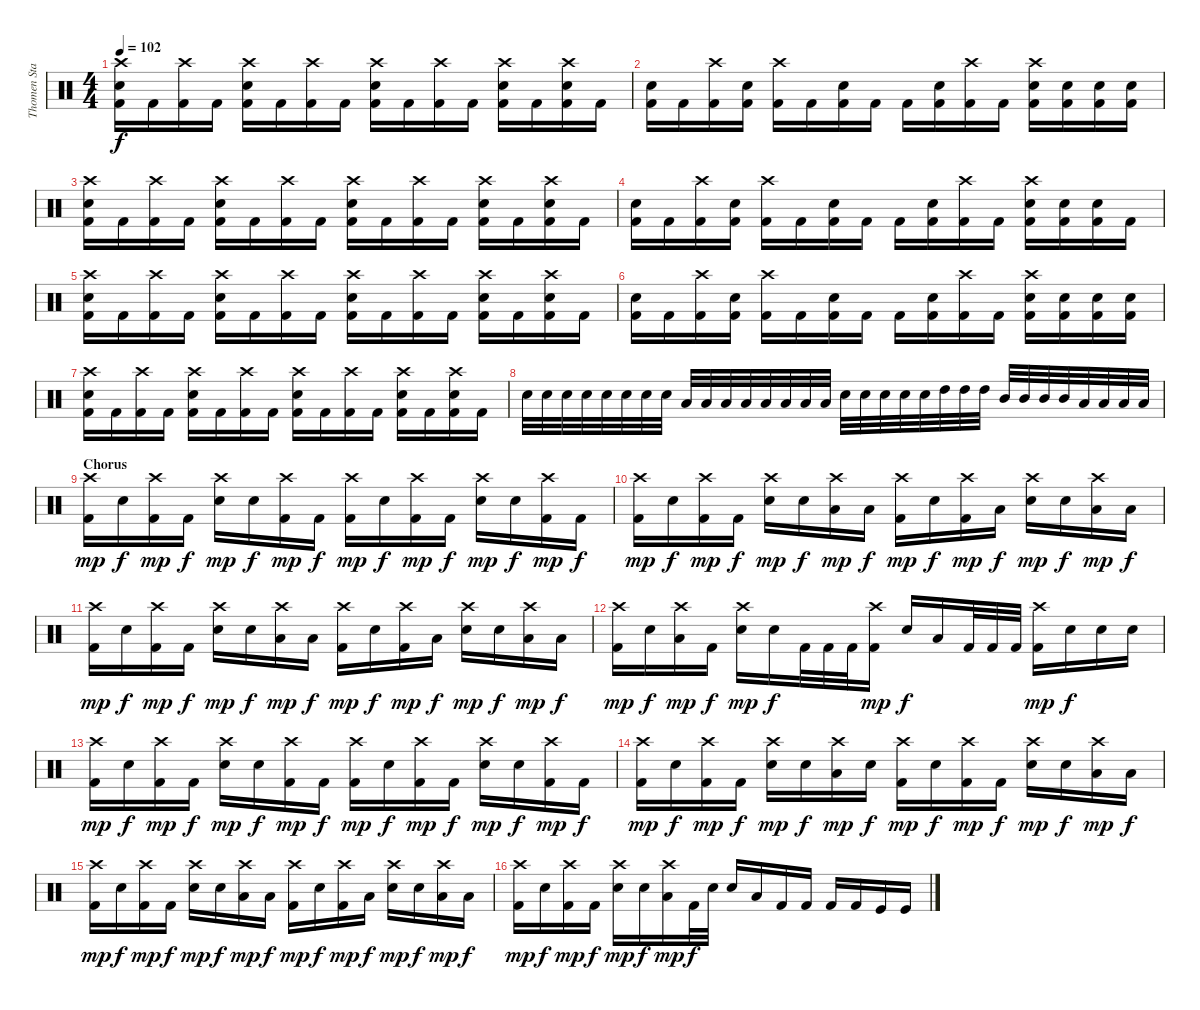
\track ("Thomen Stauch" "Thomen Sta") {instrument percussion}
\staff {score}
\articulation defaults
\ts (4 4)
\tempo 102
\clef neutral
\ks c
("Crash high (hit)" "Snare (hit) 2" "Kick (hit) 2").16{dy f} "Kick (hit) 2".16 ("Crash high (hit)" "Kick (hit) 2").16 "Kick (hit) 2".16 ("Crash high (hit)" "Snare (hit) 2" "Kick (hit) 2").16 "Kick (hit) 2".16 ("Crash high (hit)" "Kick (hit) 2").16 "Kick (hit) 2".16 ("Crash high (hit)" "Snare (hit) 2" "Kick (hit) 2").16 "Kick (hit) 2".16 ("Crash high (hit)" "Kick (hit) 2").16 "Kick (hit) 2".16 ("Crash high (hit)" "Snare (hit) 2" "Kick (hit) 2").16 "Kick (hit) 2".16 ("Crash high (hit)" "Snare (hit) 2" "Kick (hit) 2").16 "Kick (hit) 2".16 |
("Snare (hit) 2" "Kick (hit) 2").16 "Kick (hit) 2".16 ("Crash high (hit)" "Kick (hit) 2").16 ("Snare (hit) 2" "Kick (hit) 2").16 ("Crash high (hit)" "Kick (hit) 2").16 "Kick (hit) 2".16 ("Snare (hit) 2" "Kick (hit) 2").16 "Kick (hit) 2".16 "Kick (hit) 2".16 ("Snare (hit) 2" "Kick (hit) 2").16 ("Crash high (hit)" "Kick (hit) 2").16 "Kick (hit) 2".16 ("Crash high (hit)" "Snare (hit) 2" "Kick (hit) 2").16 ("Snare (hit) 2" "Kick (hit) 2").16 ("Snare (hit) 2" "Kick (hit) 2").16 ("Snare (hit) 2" "Kick (hit) 2").16 |
("Crash high (hit)" "Snare (hit) 2" "Kick (hit) 2").16 "Kick (hit) 2".16 ("Crash high (hit)" "Kick (hit) 2").16 "Kick (hit) 2".16 ("Crash high (hit)" "Snare (hit) 2" "Kick (hit) 2").16 "Kick (hit) 2".16 ("Crash high (hit)" "Kick (hit) 2").16 "Kick (hit) 2".16 ("Crash high (hit)" "Snare (hit) 2" "Kick (hit) 2").16 "Kick (hit) 2".16 ("Crash high (hit)" "Kick (hit) 2").16 "Kick (hit) 2".16 ("Crash high (hit)" "Snare (hit) 2" "Kick (hit) 2").16 "Kick (hit) 2".16 ("Crash high (hit)" "Snare (hit) 2" "Kick (hit) 2").16 "Kick (hit) 2".16 |
("Snare (hit) 2" "Kick (hit) 2").16 "Kick (hit) 2".16 ("Crash high (hit)" "Kick (hit) 2").16 ("Snare (hit) 2" "Kick (hit) 2").16 ("Crash high (hit)" "Kick (hit) 2").16 "Kick (hit) 2".16 ("Snare (hit) 2" "Kick (hit) 2").16 "Kick (hit) 2".16 "Kick (hit) 2".16 ("Snare (hit) 2" "Kick (hit) 2").16 ("Crash high (hit)" "Kick (hit) 2").16 "Kick (hit) 2".16 ("Crash high (hit)" "Snare (hit) 2" "Kick (hit) 2").16 ("Snare (hit) 2" "Kick (hit) 2").16 ("Snare (hit) 2" "Kick (hit) 2").16 "Kick (hit) 2".16 |
("Crash high (hit)" "Snare (hit) 2" "Kick (hit) 2").16 "Kick (hit) 2".16 ("Crash high (hit)" "Kick (hit) 2").16 "Kick (hit) 2".16 ("Crash high (hit)" "Snare (hit) 2" "Kick (hit) 2").16 "Kick (hit) 2".16 ("Crash high (hit)" "Kick (hit) 2").16 "Kick (hit) 2".16 ("Crash high (hit)" "Snare (hit) 2" "Kick (hit) 2").16 "Kick (hit) 2".16 ("Crash high (hit)" "Kick (hit) 2").16 "Kick (hit) 2".16 ("Crash high (hit)" "Snare (hit) 2" "Kick (hit) 2").16 "Kick (hit) 2".16 ("Crash high (hit)" "Snare (hit) 2" "Kick (hit) 2").16 "Kick (hit) 2".16 |
("Snare (hit) 2" "Kick (hit) 2").16 "Kick (hit) 2".16 ("Crash high (hit)" "Kick (hit) 2").16 ("Snare (hit) 2" "Kick (hit) 2").16 ("Crash high (hit)" "Kick (hit) 2").16 "Kick (hit) 2".16 ("Snare (hit) 2" "Kick (hit) 2").16 "Kick (hit) 2".16 "Kick (hit) 2".16 ("Snare (hit) 2" "Kick (hit) 2").16 ("Crash high (hit)" "Kick (hit) 2").16 "Kick (hit) 2".16 ("Crash high (hit)" "Snare (hit) 2" "Kick (hit) 2").16 ("Snare (hit) 2" "Kick (hit) 2").16 ("Snare (hit) 2" "Kick (hit) 2").16 ("Snare (hit) 2" "Kick (hit) 2").16 |
("Crash high (hit)" "Snare (hit) 2" "Kick (hit) 2").16 "Kick (hit) 2".16 ("Crash high (hit)" "Kick (hit) 2").16 "Kick (hit) 2".16 ("Crash high (hit)" "Snare (hit) 2" "Kick (hit) 2").16 "Kick (hit) 2".16 ("Crash high (hit)" "Kick (hit) 2").16 "Kick (hit) 2".16 ("Crash high (hit)" "Snare (hit) 2" "Kick (hit) 2").16 "Kick (hit) 2".16 ("Crash high (hit)" "Kick (hit) 2").16 "Kick (hit) 2".16 ("Crash high (hit)" "Snare (hit) 2" "Kick (hit) 2").16 "Kick (hit) 2".16 ("Crash high (hit)" "Snare (hit) 2" "Kick (hit) 2").16 "Kick (hit) 2".16 |
"Snare (hit) 2".32 "Snare (hit) 2".32 "Snare (hit) 2".32 "Snare (hit) 2".32 "Snare (hit) 2".32 "Snare (hit) 2".32 "Snare (hit) 2".32 "Snare (hit) 2".32 "Low Floor Tom (hit)".32 "Low Floor Tom (hit)".32 "Low Floor Tom (hit)".32 "Low Floor Tom (hit)".32 "Low Floor Tom (hit)".32 "Low Floor Tom (hit)".32 "Low Floor Tom (hit)".32 "Low Floor Tom (hit)".32 "Snare (hit) 2".32 "Snare (hit) 2".32 "Snare (hit) 2".32 "Snare (hit) 2".32 "Snare (hit) 2".32 "High Tom (hit)".32 "High Tom (hit)".32 "High Tom (hit)".32 "Mid Tom (hit)".32 "Mid Tom (hit)".32 "Mid Tom (hit)".32 "Mid Tom (hit)".32 "Low Floor Tom (hit)".32 "Low Floor Tom (hit)".32 "Low Floor Tom (hit)".32 "Low Floor Tom (hit)".32 |
\section ("" "Chorus")
("Crash high (hit)" "Kick (hit) 2").16{dy mp} "Snare (hit)"{x}.16{dy f} ("Crash high (hit)" "Kick (hit) 2").16{dy mp} "Kick (hit) 2".16{dy f} ("Crash high (hit)" "Snare (hit) 2").16{dy mp} "Snare (hit)"{x}.16{dy f} ("Crash high (hit)" "Kick (hit) 2").16{dy mp} "Kick (hit) 2".16{dy f} ("Crash high (hit)" "Kick (hit) 2").16{dy mp} "Snare (hit)"{x}.16{dy f} ("Crash high (hit)" "Kick (hit) 2").16{dy mp} "Kick (hit) 2".16{dy f} ("Crash high (hit)" "Snare (hit) 2").16{dy mp} "Snare (hit)"{x}.16{dy f} ("Crash high (hit)" "Kick (hit) 2").16{dy mp} "Kick (hit) 2".16{dy f} |
("Crash high (hit)" "Kick (hit) 2").16{dy mp} "Snare (hit)"{x}.16{dy f} ("Crash high (hit)" "Kick (hit) 2").16{dy mp} "Kick (hit) 2".16{dy f} ("Crash high (hit)" "Snare (hit) 2").16{dy mp} "Snare (hit)"{x}.16{dy f} ("Crash high (hit)" "Low Floor Tom (hit)"{x}).16{dy mp} "Low Floor Tom (hit)"{x}.16{dy f} ("Crash high (hit)" "Kick (hit) 2").16{dy mp} "Snare (hit)"{x}.16{dy f} ("Crash high (hit)" "Kick (hit) 2").16{dy mp} "Low Floor Tom (hit)"{x}.16{dy f} ("Crash high (hit)" "Snare (hit) 2").16{dy mp} "Snare (hit)"{x}.16{dy f} ("Crash high (hit)" "Low Floor Tom (hit)"{x}).16{dy mp} "Low Floor Tom (hit)"{x}.16{dy f} |
("Crash high (hit)" "Kick (hit) 2").16{dy mp} "Snare (hit)"{x}.16{dy f} ("Crash high (hit)" "Kick (hit) 2").16{dy mp} "Kick (hit) 2".16{dy f} ("Crash high (hit)" "Snare (hit) 2").16{dy mp} "Snare (hit)"{x}.16{dy f} ("Crash high (hit)" "Low Floor Tom (hit)"{x}).16{dy mp} "Low Floor Tom (hit)"{x}.16{dy f} ("Crash high (hit)" "Kick (hit) 2").16{dy mp} "Snare (hit)"{x}.16{dy f} ("Crash high (hit)" "Kick (hit) 2").16{dy mp} "Low Floor Tom (hit)"{x}.16{dy f} ("Crash high (hit)" "Snare (hit) 2").16{dy mp} "Snare (hit)"{x}.16{dy f} ("Crash high (hit)" "Low Floor Tom (hit)"{x}).16{dy mp} "Low Floor Tom (hit)"{x}.16{dy f} |
("Crash high (hit)" "Kick (hit) 2").16{dy mp} "Snare (hit)"{x}.16{dy f} ("Crash high (hit)" "Low Floor Tom (hit)"{x}).16{dy mp} "Kick (hit) 2".16{dy f} ("Crash high (hit)" "Snare (hit) 2").16{dy mp} "Snare (hit)"{x}.16{dy f} "Kick (hit) 2".32 "Kick (hit) 2".32 "Kick (hit) 2".32 ("Crash high (hit)" "Kick (hit) 2").16{dy mp} "Snare (hit)"{x}.16{dy f} "Low Floor Tom (hit)"{x}.16 "Kick (hit) 2".32 "Kick (hit) 2".32 "Kick (hit) 2".32 ("Crash high (hit)" "Kick (hit) 2").16{dy mp} "Snare (hit)"{x}.16{dy f} "Snare (hit)"{x}.16 "Snare (hit)"{x}.16 |
("Crash high (hit)" "Kick (hit) 2").16{dy mp} "Snare (hit)"{x}.16{dy f} ("Crash high (hit)" "Kick (hit) 2").16{dy mp} "Kick (hit) 2".16{dy f} ("Crash high (hit)" "Snare (hit) 2").16{dy mp} "Snare (hit)"{x}.16{dy f} ("Crash high (hit)" "Kick (hit) 2").16{dy mp} "Kick (hit) 2".16{dy f} ("Crash high (hit)" "Kick (hit) 2").16{dy mp} "Snare (hit)"{x}.16{dy f} ("Crash high (hit)" "Kick (hit) 2").16{dy mp} "Kick (hit) 2".16{dy f} ("Crash high (hit)" "Snare (hit) 2").16{dy mp} "Snare (hit)"{x}.16{dy f} ("Crash high (hit)" "Kick (hit) 2").16{dy mp} "Kick (hit) 2".16{dy f} |
("Crash high (hit)" "Kick (hit) 2").16{dy mp} "Snare (hit)"{x}.16{dy f} ("Crash high (hit)" "Kick (hit) 2").16{dy mp} "Kick (hit) 2".16{dy f} ("Crash high (hit)" "Snare (hit) 2").16{dy mp} "Snare (hit)"{x}.16{dy f} ("Crash high (hit)" "Low Floor Tom (hit)"{x}).16{dy mp} "Snare (hit)"{x}.16{dy f} ("Crash high (hit)" "Kick (hit) 2").16{dy mp} "Snare (hit)"{x}.16{dy f} ("Crash high (hit)" "Kick (hit) 2").16{dy mp} "Kick (hit) 2"{x}.16{dy f} ("Crash high (hit)" "Snare (hit) 2").16{dy mp} "Snare (hit)"{x}.16{dy f} ("Crash high (hit)" "Low Floor Tom (hit)"{x}).16{dy mp} "Low Floor Tom (hit)"{x}.16{dy f} |
("Crash high (hit)" "Kick (hit) 2").16{dy mp} "Snare (hit)"{x}.16{dy f} ("Crash high (hit)" "Kick (hit) 2").16{dy mp} "Kick (hit) 2".16{dy f} ("Crash high (hit)" "Snare (hit) 2").16{dy mp} "Snare (hit)"{x}.16{dy f} ("Crash high (hit)" "Low Floor Tom (hit)"{x}).16{dy mp} "Low Floor Tom (hit)"{x}.16{dy f} ("Crash high (hit)" "Kick (hit) 2").16{dy mp} "Snare (hit)"{x}.16{dy f} ("Crash high (hit)" "Kick (hit) 2").16{dy mp} "Low Floor Tom (hit)"{x}.16{dy f} ("Crash high (hit)" "Snare (hit) 2").16{dy mp} "Snare (hit)"{x}.16{dy f} ("Crash high (hit)" "Low Floor Tom (hit)"{x}).16{dy mp} "Low Floor Tom (hit)"{x}.16{dy f} |
("Crash high (hit)" "Kick (hit) 2").16{dy mp} "Snare (hit)"{x}.16{dy f} ("Crash high (hit)" "Kick (hit) 2").16{dy mp} "Kick (hit) 2".16{dy f} ("Crash high (hit)" "Snare (hit) 2").16{dy mp} "Snare (hit)"{x}.16{dy f} ("Crash high (hit)" "Low Floor Tom (hit)"{x}).16{dy mp} "Kick (hit) 2".32{dy f} "Snare (hit) 2".32 "Snare (hit) 2".16 "Low Floor Tom (hit)"{x}.16 "Kick (hit) 2".16 "Kick (hit) 2".16 "Kick (hit) 2".16 "Kick (hit) 2".16 "Kick (hit)".16 "Kick (hit)".16
